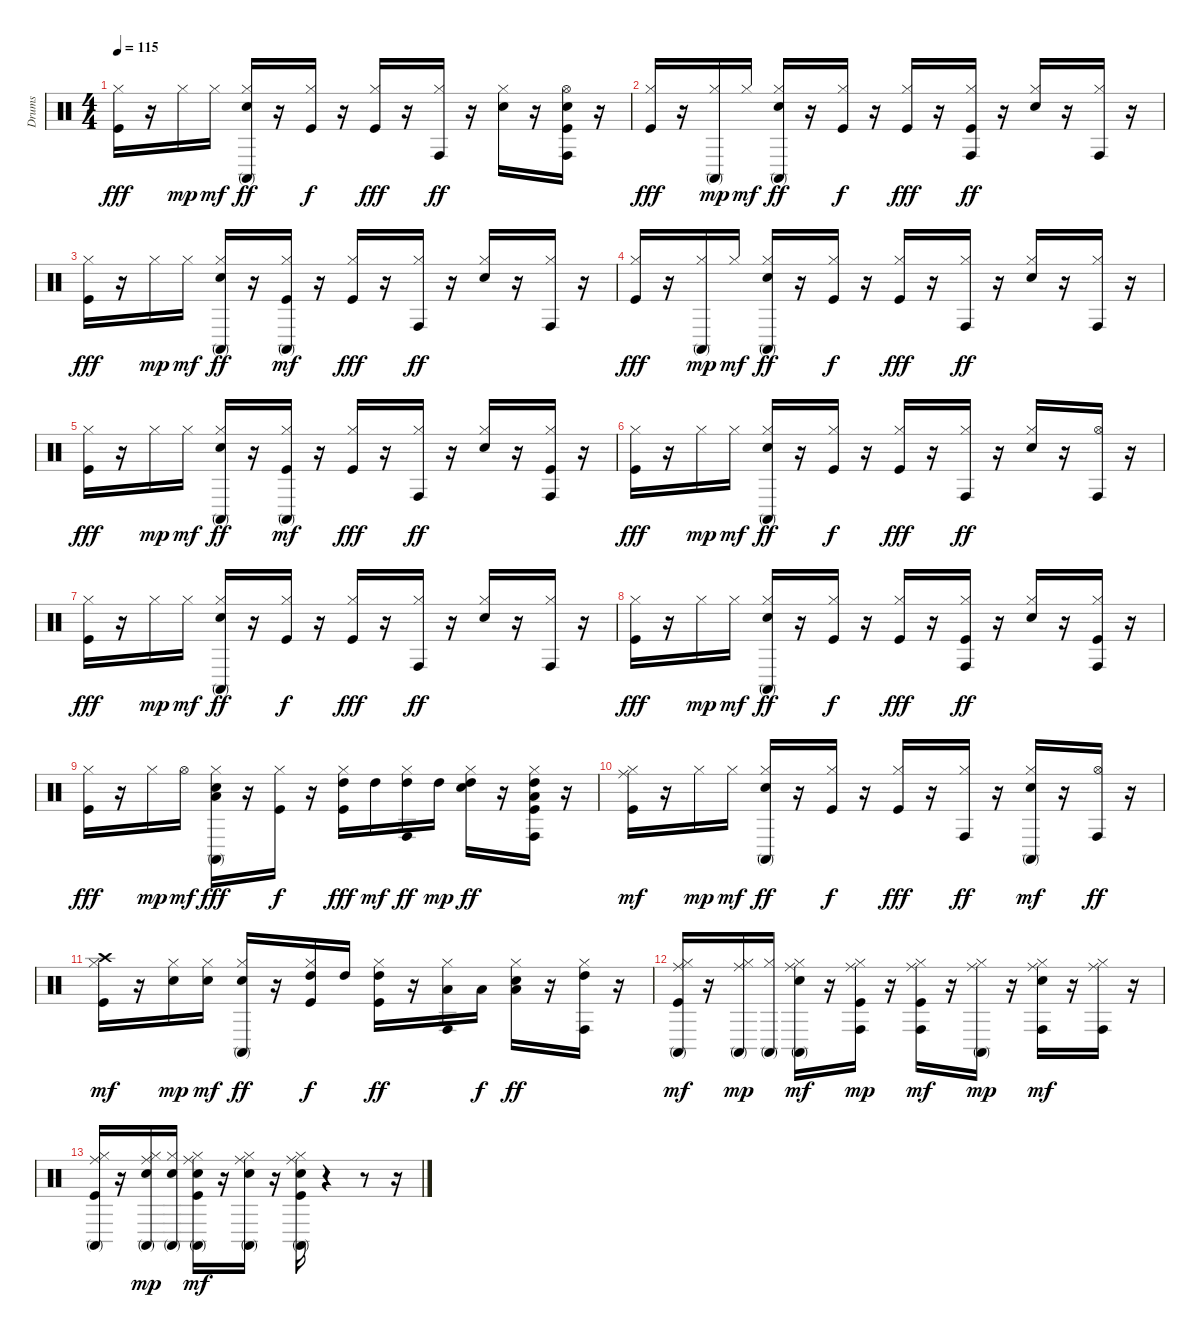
\track ("Drums" "Drums") {instrument percussion}
\staff {score}
\articulation defaults
\ts (4 4)
\tempo 115
\clef neutral
\ks c
("Kick (hit)" "Hi-Hat (closed)").16{dy fff} r.16 "Hi-Hat (closed)".16{dy mp} "Hi-Hat (closed)".16{dy mf} ("Snare (hit) 2" "Hi-Hat (closed)" "Conga high (mute)").16{dy ff} r.16 ("Kick (hit)" "Hi-Hat (closed)").16{dy f} r.16 ("Kick (hit)" "Hi-Hat (closed)").16{dy fff} r.16 ("Hi-Hat (closed)" "Conga high (hit)").16{dy ff} r.16 ("Snare (hit) 2" "Hi-Hat (closed)").16 r.16 ("Kick (hit)" "Snare (hit) 2" "Hi-Hat (open)" "Conga high (hit)").16 r.16 |
("Kick (hit)" "Hi-Hat (closed)").16{dy fff} r.16 ("Hi-Hat (closed)" "Conga high (mute)").16{dy mp} "Hi-Hat (closed)".16{dy mf} ("Snare (hit) 2" "Hi-Hat (closed)" "Conga high (mute)").16{dy ff} r.16 ("Kick (hit)" "Hi-Hat (closed)").16{dy f} r.16 ("Kick (hit)" "Hi-Hat (closed)").16{dy fff} r.16 ("Kick (hit)" "Hi-Hat (closed)" "Conga high (hit)").16{dy ff} r.16 ("Snare (hit) 2" "Hi-Hat (closed)").16 r.16 ("Hi-Hat (closed)" "Conga high (hit)").16 r.16 |
("Kick (hit)" "Hi-Hat (closed)").16{dy fff} r.16 "Hi-Hat (closed)".16{dy mp} "Hi-Hat (closed)".16{dy mf} ("Snare (hit) 2" "Hi-Hat (closed)" "Conga high (mute)").16{dy ff} r.16 ("Kick (hit)" "Hi-Hat (closed)" "Conga high (mute)").16{dy mf} r.16 ("Kick (hit)" "Hi-Hat (closed)").16{dy fff} r.16 ("Hi-Hat (closed)" "Conga high (hit)").16{dy ff} r.16 ("Snare (hit) 2" "Hi-Hat (closed)").16 r.16 ("Hi-Hat (closed)" "Conga high (hit)").16 r.16 |
("Kick (hit)" "Hi-Hat (closed)").16{dy fff} r.16 ("Hi-Hat (closed)" "Conga high (mute)").16{dy mp} "Hi-Hat (closed)".16{dy mf} ("Snare (hit) 2" "Hi-Hat (closed)" "Conga high (mute)").16{dy ff} r.16 ("Kick (hit)" "Hi-Hat (closed)").16{dy f} r.16 ("Kick (hit)" "Hi-Hat (closed)").16{dy fff} r.16 ("Hi-Hat (closed)" "Conga high (hit)").16{dy ff} r.16 ("Snare (hit) 2" "Hi-Hat (closed)").16 r.16 ("Hi-Hat (closed)" "Conga high (hit)").16 r.16 |
("Kick (hit)" "Hi-Hat (closed)").16{dy fff} r.16 "Hi-Hat (closed)".16{dy mp} "Hi-Hat (closed)".16{dy mf} ("Snare (hit) 2" "Hi-Hat (closed)" "Conga high (mute)").16{dy ff} r.16 ("Kick (hit)" "Hi-Hat (closed)" "Conga high (mute)").16{dy mf} r.16 ("Kick (hit)" "Hi-Hat (closed)").16{dy fff} r.16 ("Hi-Hat (closed)" "Conga high (hit)").16{dy ff} r.16 ("Snare (hit) 2" "Hi-Hat (closed)").16 r.16 ("Kick (hit)" "Hi-Hat (closed)" "Conga high (hit)").16 r.16 |
("Kick (hit)" "Hi-Hat (closed)").16{dy fff} r.16 "Hi-Hat (closed)".16{dy mp} "Hi-Hat (closed)".16{dy mf} ("Snare (hit) 2" "Hi-Hat (closed)" "Conga high (mute)").16{dy ff} r.16 ("Kick (hit)" "Hi-Hat (closed)").16{dy f} r.16 ("Kick (hit)" "Hi-Hat (closed)").16{dy fff} r.16 ("Hi-Hat (closed)" "Conga high (hit)").16{dy ff} r.16 ("Snare (hit) 2" "Hi-Hat (closed)").16 r.16 ("Hi-Hat (open)" "Conga high (hit)").16 r.16 |
("Kick (hit)" "Hi-Hat (closed)").16{dy fff} r.16 "Hi-Hat (closed)".16{dy mp} "Hi-Hat (closed)".16{dy mf} ("Snare (hit) 2" "Hi-Hat (closed)" "Conga high (mute)").16{dy ff} r.16 ("Kick (hit)" "Hi-Hat (closed)").16{dy f} r.16 ("Kick (hit)" "Hi-Hat (closed)").16{dy fff} r.16 ("Hi-Hat (closed)" "Conga high (hit)").16{dy ff} r.16 ("Snare (hit) 2" "Hi-Hat (closed)").16 r.16 ("Hi-Hat (closed)" "Conga high (hit)").16 r.16 |
("Kick (hit)" "Hi-Hat (closed)").16{dy fff} r.16 "Hi-Hat (closed)".16{dy mp} "Hi-Hat (closed)".16{dy mf} ("Snare (hit) 2" "Hi-Hat (closed)" "Conga high (mute)").16{dy ff} r.16 ("Kick (hit)" "Hi-Hat (closed)").16{dy f} r.16 ("Kick (hit)" "Hi-Hat (closed)").16{dy fff} r.16 ("Kick (hit)" "Hi-Hat (closed)" "Conga high (hit)").16{dy ff} r.16 ("Snare (hit) 2" "Hi-Hat (closed)").16 r.16 ("Kick (hit)" "Hi-Hat (closed)" "Conga high (hit)").16 r.16 |
("Kick (hit)" "Hi-Hat (closed)").16{dy fff} r.16 "Hi-Hat (closed)".16{dy mp} "Hi-Hat (open)".16{dy mf} ("Snare (hit) 2" "Hi-Hat (closed)" "Low Floor Tom (hit)" "Conga high (mute)").16{dy fff} r.16 ("Kick (hit)" "Hi-Hat (closed)").16{dy f} r.16 ("Kick (hit)" "Hi-Hat (closed)" "High Tom (hit)").16{dy fff} "High Tom (hit)".16{dy mf} ("Hi-Hat (closed)" "High Tom (hit)" "Conga high (hit)").16{dy ff} "High Tom (hit)".16{dy mp} ("Snare (hit) 2" "Hi-Hat (closed)" "High Tom (hit)").16{dy ff} r.16 ("Kick (hit)" "Hi-Hat (closed)" "Low Tom (hit)" "High Tom (hit)" "Conga high (hit)").16 r.16 |
("Kick (hit)" "Hi-Hat (closed)" "Ride (middle)").16{dy mf} r.16 "Hi-Hat (closed)".16{dy mp} "Hi-Hat (closed)".16{dy mf} ("Snare (hit) 2" "Hi-Hat (closed)" "Conga high (mute)").16{dy ff} r.16 ("Kick (hit)" "Hi-Hat (closed)").16{dy f} r.16 ("Kick (hit)" "Hi-Hat (closed)").16{dy fff} r.16 ("Hi-Hat (closed)" "Conga high (hit)").16{dy ff} r.16 ("Snare (hit) 2" "Hi-Hat (closed)" "Conga high (mute)").16{dy mf} r.16 ("Hi-Hat (open)" "Conga high (hit)").16{dy ff} r.16 |
("Kick (hit)" "Hi-Hat (closed)" "Crash high (hit)").16{dy mf} r.16 ("Snare (hit) 2" "Hi-Hat (closed)").16{dy mp} ("Snare (hit) 2" "Hi-Hat (closed)").16{dy mf} ("Snare (hit) 2" "Hi-Hat (closed)" "Conga high (mute)").16{dy ff} r.16 ("Kick (hit)" "Hi-Hat (closed)" "High Tom (hit)").16{dy f} "High Tom (hit)".16 ("Kick (hit)" "Hi-Hat (closed)" "High Tom (hit)").16{dy ff} r.16 ("Hi-Hat (closed)" "Low Tom (hit)" "Conga high (hit)").16 "Low Tom (hit)".16{dy f} ("Snare (hit) 2" "Hi-Hat (closed)" "Low Tom (hit)").16{dy ff} r.16 ("Hi-Hat (closed)" "High Tom (hit)" "Conga high (hit)").16 r.16 |
("Kick (hit)" "Hi-Hat (closed)" "Ride (middle)" "Conga high (mute)").16{dy mf} r.16 ("Hi-Hat (closed)" "Ride (middle)" "Conga high (mute)").16{dy mp} ("Hi-Hat (closed)" "Conga high (mute)").16 ("Snare (hit) 2" "Hi-Hat (closed)" "Ride (middle)" "Conga high (mute)").16{dy mf} r.16 ("Kick (hit)" "Hi-Hat (closed)" "Ride (middle)" "Conga high (hit)").16{dy mp} r.16 ("Kick (hit)" "Hi-Hat (closed)" "Ride (middle)" "Conga high (hit)").16{dy mf} r.16 ("Hi-Hat (closed)" "Ride (middle)" "Conga high (mute)").16{dy mp} r.16 ("Snare (hit) 2" "Hi-Hat (closed)" "Ride (middle)" "Conga high (hit)").16{dy mf} r.16 ("Hi-Hat (closed)" "Ride (middle)" "Conga high (hit)").16 r.16 |
("Kick (hit)" "Hi-Hat (closed)" "Ride (middle)" "Conga high (mute)").16 r.16 ("Snare (hit) 2" "Hi-Hat (closed)" "Ride (middle)" "Conga high (mute)").16{dy mp} ("Snare (hit) 2" "Hi-Hat (closed)" "Conga high (mute)").16 ("Kick (hit)" "Snare (hit) 2" "Hi-Hat (closed)" "Ride (middle)" "Conga high (mute)").16{dy mf} r.16 ("Snare (hit) 2" "Hi-Hat (closed)" "Ride (middle)" "Conga high (mute)").16 r.16 ("Kick (hit)" "Snare (hit) 2" "Hi-Hat (closed)" "Ride (middle)" "Conga high (mute)").16 r.4 r.8 r.16
